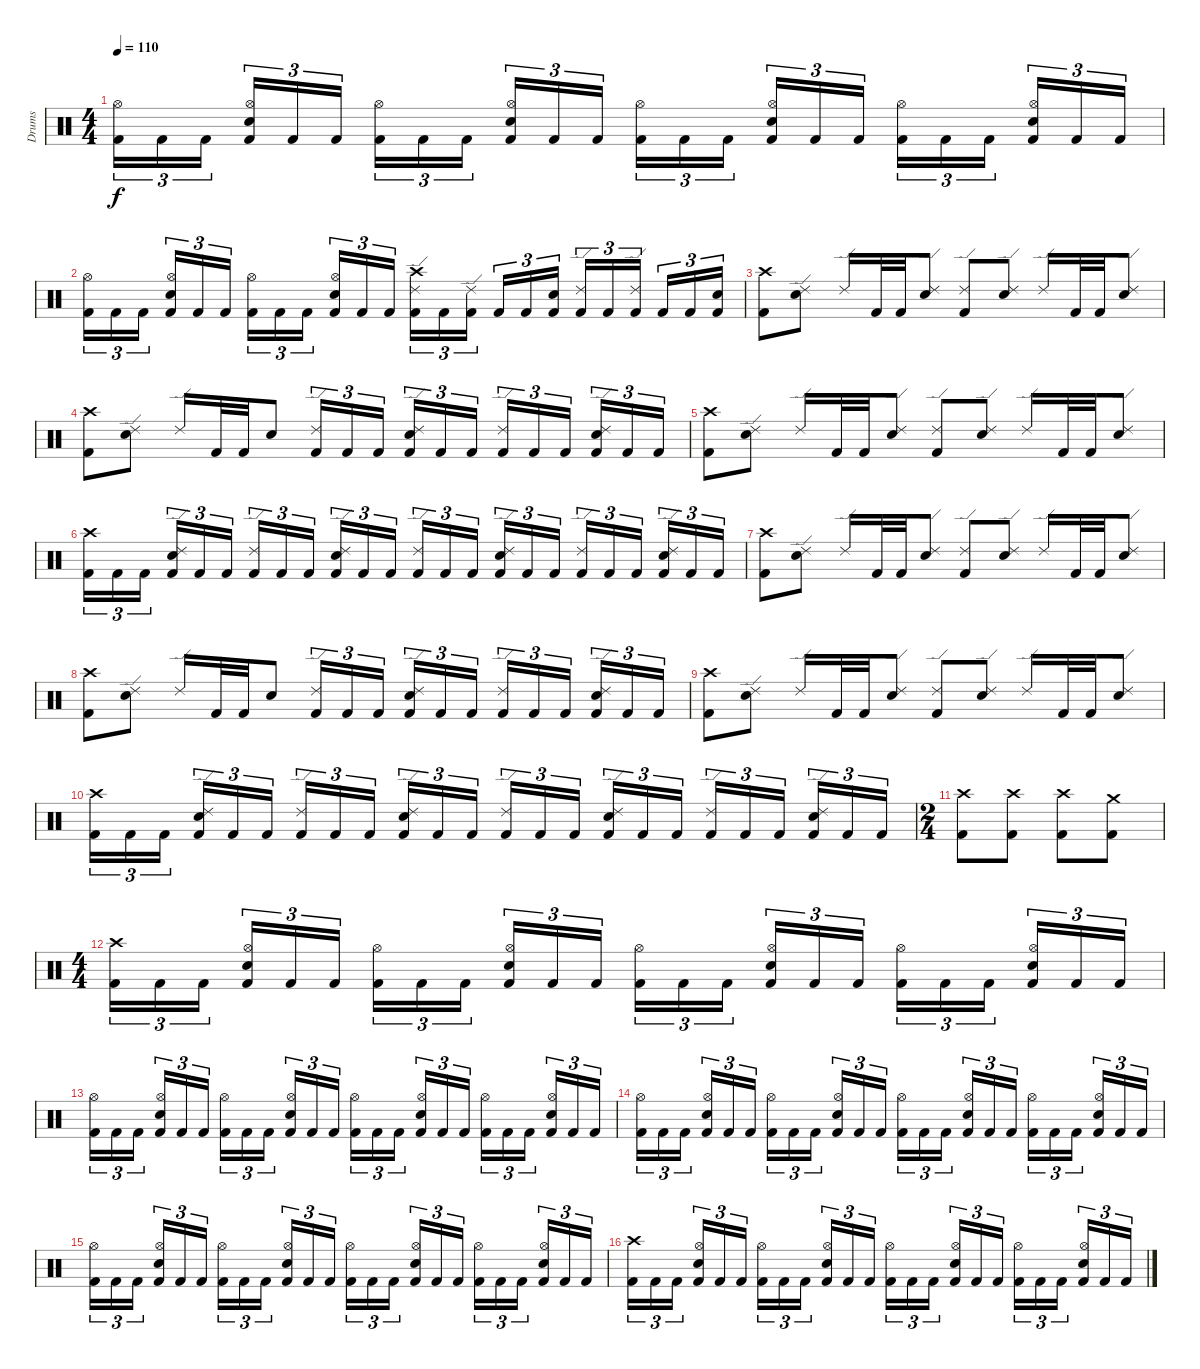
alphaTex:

\track ("Drums" "Drums") {instrument percussion}
\staff {score}
\articulation defaults
\ts (4 4)
\tempo 110
\clef neutral
\ks c
("Kick (hit) 2" "Hi-Hat (open)").16{tu (3 2) dy f} "Kick (hit) 2".16{tu (3 2)} "Kick (hit) 2".16{tu (3 2)} ("Kick (hit) 2" "Snare (hit) 2" "Hi-Hat (open)").16{tu (3 2)} "Kick (hit) 2".16{tu (3 2)} "Kick (hit) 2".16{tu (3 2)} ("Kick (hit) 2" "Hi-Hat (open)").16{tu (3 2)} "Kick (hit) 2".16{tu (3 2)} "Kick (hit) 2".16{tu (3 2)} ("Kick (hit) 2" "Snare (hit) 2" "Hi-Hat (open)").16{tu (3 2)} "Kick (hit) 2".16{tu (3 2)} "Kick (hit) 2".16{tu (3 2)} ("Kick (hit) 2" "Hi-Hat (open)").16{tu (3 2)} "Kick (hit) 2".16{tu (3 2)} "Kick (hit) 2".16{tu (3 2)} ("Kick (hit) 2" "Snare (hit) 2" "Hi-Hat (open)").16{tu (3 2)} "Kick (hit) 2".16{tu (3 2)} "Kick (hit) 2".16{tu (3 2)} ("Kick (hit) 2" "Hi-Hat (open)").16{tu (3 2)} "Kick (hit) 2".16{tu (3 2)} "Kick (hit) 2".16{tu (3 2)} ("Kick (hit) 2" "Snare (hit) 2" "Hi-Hat (open)").16{tu (3 2)} "Kick (hit) 2".16{tu (3 2)} "Kick (hit) 2".16{tu (3 2)} |
("Kick (hit) 2" "Hi-Hat (open)").16{tu (3 2)} "Kick (hit) 2".16{tu (3 2)} "Kick (hit) 2".16{tu (3 2)} ("Kick (hit) 2" "Snare (hit) 2" "Hi-Hat (open)").16{tu (3 2)} "Kick (hit) 2".16{tu (3 2)} "Kick (hit) 2".16{tu (3 2)} ("Kick (hit) 2" "Hi-Hat (open)").16{tu (3 2)} "Kick (hit) 2".16{tu (3 2)} "Kick (hit) 2".16{tu (3 2)} ("Kick (hit) 2" "Snare (hit) 2" "Hi-Hat (open)").16{tu (3 2)} "Kick (hit) 2".16{tu (3 2)} "Kick (hit) 2".16{tu (3 2)} ("Kick (hit) 2" "Ride (edge) 2" "Crash high (hit)").16{tu (3 2)} "Kick (hit) 2".16{tu (3 2)} ("Kick (hit) 2" "Ride (edge) 2").16{tu (3 2)} "Kick (hit) 2".16{tu (3 2)} "Kick (hit) 2".16{tu (3 2)} ("Kick (hit) 2" "Snare (hit) 2").16{tu (3 2)} ("Kick (hit) 2" "Ride (edge) 2").16{tu (3 2)} "Kick (hit) 2".16{tu (3 2)} ("Kick (hit) 2" "Ride (edge) 2").16{tu (3 2)} "Kick (hit) 2".16{tu (3 2)} "Kick (hit) 2".16{tu (3 2)} ("Kick (hit) 2" "Snare (hit) 2").16{tu (3 2)} |
("Kick (hit) 2" "Crash high (hit)").8 ("Snare (hit) 2" "Ride (edge) 2").8 "Ride (edge) 2".16 "Kick (hit) 2".32 "Kick (hit) 2".32 ("Snare (hit) 2" "Ride (edge) 2").8 ("Kick (hit) 2" "Ride (edge) 2").8 ("Snare (hit) 2" "Ride (edge) 2").8 "Ride (edge) 2".16 "Kick (hit) 2".32 "Kick (hit) 2".32 ("Snare (hit) 2" "Ride (edge) 2").8 |
("Kick (hit) 2" "Crash high (hit)").8 ("Snare (hit) 2" "Ride (edge) 2").8 "Ride (edge) 2".16 "Kick (hit) 2".32 "Kick (hit) 2".32 "Snare (hit) 2".8 ("Kick (hit) 2" "Ride (edge) 2").16{tu (3 2)} "Kick (hit) 2".16{tu (3 2)} "Kick (hit) 2".16{tu (3 2)} ("Kick (hit) 2" "Snare (hit) 2" "Ride (edge) 2").16{tu (3 2)} "Kick (hit) 2".16{tu (3 2)} "Kick (hit) 2".16{tu (3 2)} ("Kick (hit) 2" "Ride (edge) 2").16{tu (3 2)} "Kick (hit) 2".16{tu (3 2)} "Kick (hit) 2".16{tu (3 2)} ("Kick (hit) 2" "Snare (hit) 2" "Ride (edge) 2").16{tu (3 2)} "Kick (hit) 2".16{tu (3 2)} "Kick (hit) 2".16{tu (3 2)} |
("Kick (hit) 2" "Crash high (hit)").8 ("Snare (hit) 2" "Ride (edge) 2").8 "Ride (edge) 2".16 "Kick (hit) 2".32 "Kick (hit) 2".32 ("Snare (hit) 2" "Ride (edge) 2").8 ("Kick (hit) 2" "Ride (edge) 2").8 ("Snare (hit) 2" "Ride (edge) 2").8 "Ride (edge) 2".16 "Kick (hit) 2".32 "Kick (hit) 2".32 ("Snare (hit) 2" "Ride (edge) 2").8 |
("Kick (hit) 2" "Crash high (hit)").16{tu (3 2)} "Kick (hit) 2".16{tu (3 2)} "Kick (hit) 2".16{tu (3 2)} ("Kick (hit) 2" "Snare (hit) 2" "Ride (edge) 2").16{tu (3 2)} "Kick (hit) 2".16{tu (3 2)} "Kick (hit) 2".16{tu (3 2)} ("Kick (hit) 2" "Ride (edge) 2").16{tu (3 2)} "Kick (hit) 2".16{tu (3 2)} "Kick (hit) 2".16{tu (3 2)} ("Kick (hit) 2" "Snare (hit) 2" "Ride (edge) 2").16{tu (3 2)} "Kick (hit) 2".16{tu (3 2)} "Kick (hit) 2".16{tu (3 2)} ("Kick (hit) 2" "Ride (edge) 2").16{tu (3 2)} "Kick (hit) 2".16{tu (3 2)} "Kick (hit) 2".16{tu (3 2)} ("Kick (hit) 2" "Snare (hit) 2" "Ride (edge) 2").16{tu (3 2)} "Kick (hit) 2".16{tu (3 2)} "Kick (hit) 2".16{tu (3 2)} ("Kick (hit) 2" "Ride (edge) 2").16{tu (3 2)} "Kick (hit) 2".16{tu (3 2)} "Kick (hit) 2".16{tu (3 2)} ("Kick (hit) 2" "Snare (hit) 2" "Ride (edge) 2").16{tu (3 2)} "Kick (hit) 2".16{tu (3 2)} "Kick (hit) 2".16{tu (3 2)} |
("Kick (hit) 2" "Crash high (hit)").8 ("Snare (hit) 2" "Ride (edge) 2").8 "Ride (edge) 2".16 "Kick (hit) 2".32 "Kick (hit) 2".32 ("Snare (hit) 2" "Ride (edge) 2").8 ("Kick (hit) 2" "Ride (edge) 2").8 ("Snare (hit) 2" "Ride (edge) 2").8 "Ride (edge) 2".16 "Kick (hit) 2".32 "Kick (hit) 2".32 ("Snare (hit) 2" "Ride (edge) 2").8 |
("Kick (hit) 2" "Crash high (hit)").8 ("Snare (hit) 2" "Ride (edge) 2").8 "Ride (edge) 2".16 "Kick (hit) 2".32 "Kick (hit) 2".32 "Snare (hit) 2".8 ("Kick (hit) 2" "Ride (edge) 2").16{tu (3 2)} "Kick (hit) 2".16{tu (3 2)} "Kick (hit) 2".16{tu (3 2)} ("Kick (hit) 2" "Snare (hit) 2" "Ride (edge) 2").16{tu (3 2)} "Kick (hit) 2".16{tu (3 2)} "Kick (hit) 2".16{tu (3 2)} ("Kick (hit) 2" "Ride (edge) 2").16{tu (3 2)} "Kick (hit) 2".16{tu (3 2)} "Kick (hit) 2".16{tu (3 2)} ("Kick (hit) 2" "Snare (hit) 2" "Ride (edge) 2").16{tu (3 2)} "Kick (hit) 2".16{tu (3 2)} "Kick (hit) 2".16{tu (3 2)} |
("Kick (hit) 2" "Crash high (hit)").8 ("Snare (hit) 2" "Ride (edge) 2").8 "Ride (edge) 2".16 "Kick (hit) 2".32 "Kick (hit) 2".32 ("Snare (hit) 2" "Ride (edge) 2").8 ("Kick (hit) 2" "Ride (edge) 2").8 ("Snare (hit) 2" "Ride (edge) 2").8 "Ride (edge) 2".16 "Kick (hit) 2".32 "Kick (hit) 2".32 ("Snare (hit) 2" "Ride (edge) 2").8 |
("Kick (hit) 2" "Crash high (hit)").16{tu (3 2)} "Kick (hit) 2".16{tu (3 2)} "Kick (hit) 2".16{tu (3 2)} ("Kick (hit) 2" "Snare (hit) 2" "Ride (edge) 2").16{tu (3 2)} "Kick (hit) 2".16{tu (3 2)} "Kick (hit) 2".16{tu (3 2)} ("Kick (hit) 2" "Ride (edge) 2").16{tu (3 2)} "Kick (hit) 2".16{tu (3 2)} "Kick (hit) 2".16{tu (3 2)} ("Kick (hit) 2" "Snare (hit) 2" "Ride (edge) 2").16{tu (3 2)} "Kick (hit) 2".16{tu (3 2)} "Kick (hit) 2".16{tu (3 2)} ("Kick (hit) 2" "Ride (edge) 2").16{tu (3 2)} "Kick (hit) 2".16{tu (3 2)} "Kick (hit) 2".16{tu (3 2)} ("Kick (hit) 2" "Snare (hit) 2" "Ride (edge) 2").16{tu (3 2)} "Kick (hit) 2".16{tu (3 2)} "Kick (hit) 2".16{tu (3 2)} ("Kick (hit) 2" "Ride (edge) 2").16{tu (3 2)} "Kick (hit) 2".16{tu (3 2)} "Kick (hit) 2".16{tu (3 2)} ("Kick (hit) 2" "Snare (hit) 2" "Ride (edge) 2").16{tu (3 2)} "Kick (hit) 2".16{tu (3 2)} "Kick (hit) 2".16{tu (3 2)} |
\ts (2 4)
("Kick (hit) 2" "Crash high (hit)").8 ("Kick (hit) 2" "Crash high (hit)").8 ("Kick (hit) 2" "Crash high (hit)").8 ("Kick (hit) 2" "Crash medium (hit)").8 |
\ts (4 4)
("Kick (hit) 2" "Crash high (hit)").16{tu (3 2)} "Kick (hit) 2".16{tu (3 2)} "Kick (hit) 2".16{tu (3 2)} ("Kick (hit) 2" "Snare (hit) 2" "Hi-Hat (open)").16{tu (3 2)} "Kick (hit) 2".16{tu (3 2)} "Kick (hit) 2".16{tu (3 2)} ("Kick (hit) 2" "Hi-Hat (open)").16{tu (3 2)} "Kick (hit) 2".16{tu (3 2)} "Kick (hit) 2".16{tu (3 2)} ("Kick (hit) 2" "Snare (hit) 2" "Hi-Hat (open)").16{tu (3 2)} "Kick (hit) 2".16{tu (3 2)} "Kick (hit) 2".16{tu (3 2)} ("Kick (hit) 2" "Hi-Hat (open)").16{tu (3 2)} "Kick (hit) 2".16{tu (3 2)} "Kick (hit) 2".16{tu (3 2)} ("Kick (hit) 2" "Snare (hit) 2" "Hi-Hat (open)").16{tu (3 2)} "Kick (hit) 2".16{tu (3 2)} "Kick (hit) 2".16{tu (3 2)} ("Kick (hit) 2" "Hi-Hat (open)").16{tu (3 2)} "Kick (hit) 2".16{tu (3 2)} "Kick (hit) 2".16{tu (3 2)} ("Kick (hit) 2" "Snare (hit) 2" "Hi-Hat (open)").16{tu (3 2)} "Kick (hit) 2".16{tu (3 2)} "Kick (hit) 2".16{tu (3 2)} |
("Kick (hit) 2" "Hi-Hat (open)").16{tu (3 2)} "Kick (hit) 2".16{tu (3 2)} "Kick (hit) 2".16{tu (3 2)} ("Kick (hit) 2" "Snare (hit) 2" "Hi-Hat (open)").16{tu (3 2)} "Kick (hit) 2".16{tu (3 2)} "Kick (hit) 2".16{tu (3 2)} ("Kick (hit) 2" "Hi-Hat (open)").16{tu (3 2)} "Kick (hit) 2".16{tu (3 2)} "Kick (hit) 2".16{tu (3 2)} ("Kick (hit) 2" "Snare (hit) 2" "Hi-Hat (open)").16{tu (3 2)} "Kick (hit) 2".16{tu (3 2)} "Kick (hit) 2".16{tu (3 2)} ("Kick (hit) 2" "Hi-Hat (open)").16{tu (3 2)} "Kick (hit) 2".16{tu (3 2)} "Kick (hit) 2".16{tu (3 2)} ("Kick (hit) 2" "Snare (hit) 2" "Hi-Hat (open)").16{tu (3 2)} "Kick (hit) 2".16{tu (3 2)} "Kick (hit) 2".16{tu (3 2)} ("Kick (hit) 2" "Hi-Hat (open)").16{tu (3 2)} "Kick (hit) 2".16{tu (3 2)} "Kick (hit) 2".16{tu (3 2)} ("Kick (hit) 2" "Snare (hit) 2" "Hi-Hat (open)").16{tu (3 2)} "Kick (hit) 2".16{tu (3 2)} "Kick (hit) 2".16{tu (3 2)} |
("Kick (hit) 2" "Hi-Hat (open)").16{tu (3 2)} "Kick (hit) 2".16{tu (3 2)} "Kick (hit) 2".16{tu (3 2)} ("Kick (hit) 2" "Snare (hit) 2" "Hi-Hat (open)").16{tu (3 2)} "Kick (hit) 2".16{tu (3 2)} "Kick (hit) 2".16{tu (3 2)} ("Kick (hit) 2" "Hi-Hat (open)").16{tu (3 2)} "Kick (hit) 2".16{tu (3 2)} "Kick (hit) 2".16{tu (3 2)} ("Kick (hit) 2" "Snare (hit) 2" "Hi-Hat (open)").16{tu (3 2)} "Kick (hit) 2".16{tu (3 2)} "Kick (hit) 2".16{tu (3 2)} ("Kick (hit) 2" "Hi-Hat (open)").16{tu (3 2)} "Kick (hit) 2".16{tu (3 2)} "Kick (hit) 2".16{tu (3 2)} ("Kick (hit) 2" "Snare (hit) 2" "Hi-Hat (open)").16{tu (3 2)} "Kick (hit) 2".16{tu (3 2)} "Kick (hit) 2".16{tu (3 2)} ("Kick (hit) 2" "Hi-Hat (open)").16{tu (3 2)} "Kick (hit) 2".16{tu (3 2)} "Kick (hit) 2".16{tu (3 2)} ("Kick (hit) 2" "Snare (hit) 2" "Hi-Hat (open)").16{tu (3 2)} "Kick (hit) 2".16{tu (3 2)} "Kick (hit) 2".16{tu (3 2)} |
("Kick (hit) 2" "Hi-Hat (open)").16{tu (3 2)} "Kick (hit) 2".16{tu (3 2)} "Kick (hit) 2".16{tu (3 2)} ("Kick (hit) 2" "Snare (hit) 2" "Hi-Hat (open)").16{tu (3 2)} "Kick (hit) 2".16{tu (3 2)} "Kick (hit) 2".16{tu (3 2)} ("Kick (hit) 2" "Hi-Hat (open)").16{tu (3 2)} "Kick (hit) 2".16{tu (3 2)} "Kick (hit) 2".16{tu (3 2)} ("Kick (hit) 2" "Snare (hit) 2" "Hi-Hat (open)").16{tu (3 2)} "Kick (hit) 2".16{tu (3 2)} "Kick (hit) 2".16{tu (3 2)} ("Kick (hit) 2" "Hi-Hat (open)").16{tu (3 2)} "Kick (hit) 2".16{tu (3 2)} "Kick (hit) 2".16{tu (3 2)} ("Kick (hit) 2" "Snare (hit) 2" "Hi-Hat (open)").16{tu (3 2)} "Kick (hit) 2".16{tu (3 2)} "Kick (hit) 2".16{tu (3 2)} ("Kick (hit) 2" "Hi-Hat (open)").16{tu (3 2)} "Kick (hit) 2".16{tu (3 2)} "Kick (hit) 2".16{tu (3 2)} ("Kick (hit) 2" "Snare (hit) 2" "Hi-Hat (open)").16{tu (3 2)} "Kick (hit) 2".16{tu (3 2)} "Kick (hit) 2".16{tu (3 2)} |
("Kick (hit) 2" "Crash high (hit)").16{tu (3 2)} "Kick (hit) 2".16{tu (3 2)} "Kick (hit) 2".16{tu (3 2)} ("Kick (hit) 2" "Snare (hit) 2" "Hi-Hat (open)").16{tu (3 2)} "Kick (hit) 2".16{tu (3 2)} "Kick (hit) 2".16{tu (3 2)} ("Kick (hit) 2" "Hi-Hat (open)").16{tu (3 2)} "Kick (hit) 2".16{tu (3 2)} "Kick (hit) 2".16{tu (3 2)} ("Kick (hit) 2" "Snare (hit) 2" "Hi-Hat (open)").16{tu (3 2)} "Kick (hit) 2".16{tu (3 2)} "Kick (hit) 2".16{tu (3 2)} ("Kick (hit) 2" "Hi-Hat (open)").16{tu (3 2)} "Kick (hit) 2".16{tu (3 2)} "Kick (hit) 2".16{tu (3 2)} ("Kick (hit) 2" "Snare (hit) 2" "Hi-Hat (open)").16{tu (3 2)} "Kick (hit) 2".16{tu (3 2)} "Kick (hit) 2".16{tu (3 2)} ("Kick (hit) 2" "Hi-Hat (open)").16{tu (3 2)} "Kick (hit) 2".16{tu (3 2)} "Kick (hit) 2".16{tu (3 2)} ("Kick (hit) 2" "Snare (hit) 2" "Hi-Hat (open)").16{tu (3 2)} "Kick (hit) 2".16{tu (3 2)} "Kick (hit) 2".16{tu (3 2)}
